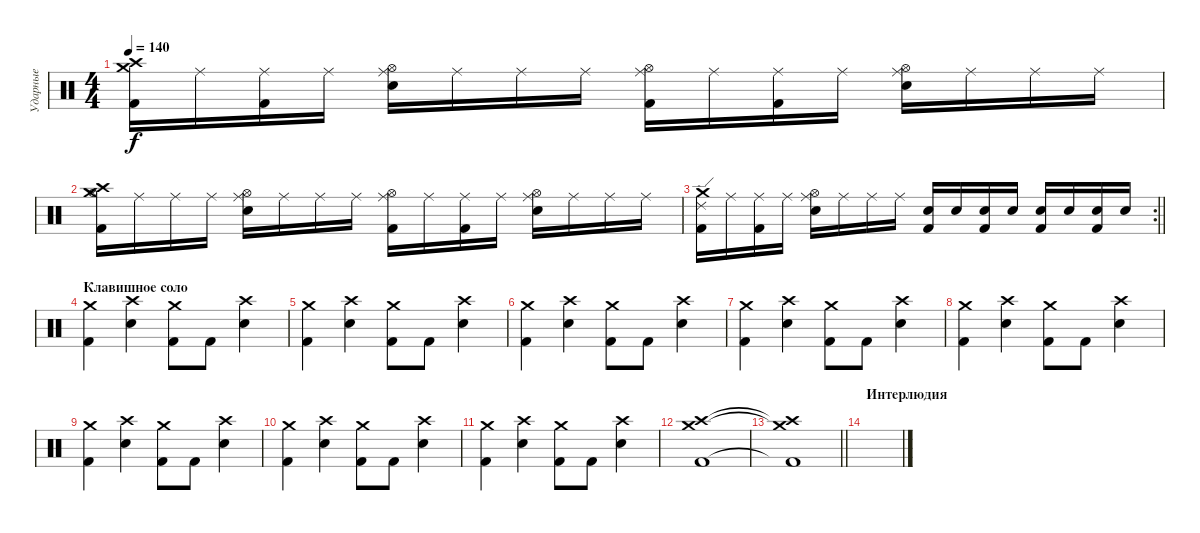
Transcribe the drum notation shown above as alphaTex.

\track ("Ударные" "Ударные") {instrument percussion}
\staff {score}
\articulation defaults
\ts (4 4)
\tempo 140
\clef neutral
\ks c
("Crash medium (hit)" "Crash high (hit)" "Kick (hit) 2").16{dy f} "Ride (middle)".16 ("Ride (middle)" "Kick (hit) 2").16 "Ride (middle)".16 ("Ride (middle)" "Hi-Hat (open)" "Snare (hit) 2").16 "Ride (middle)".16 "Ride (middle)".16 "Ride (middle)".16 ("Ride (middle)" "Hi-Hat (open)" "Kick (hit) 2").16 "Ride (middle)".16 ("Ride (middle)" "Kick (hit) 2").16 "Ride (middle)".16 ("Ride (middle)" "Hi-Hat (open)" "Snare (hit) 2").16 "Ride (middle)".16 "Ride (middle)".16 "Ride (middle)".16 |
("Crash medium (hit)" "Crash high (hit)" "Hi-Hat (open)" "Kick (hit) 2").16 "Ride (middle)".16 "Ride (middle)".16 "Ride (middle)".16 ("Ride (middle)" "Hi-Hat (open)" "Snare (hit) 2").16 "Ride (middle)".16 "Ride (middle)".16 "Ride (middle)".16 ("Ride (middle)" "Hi-Hat (open)" "Kick (hit) 2").16 "Ride (middle)".16 ("Ride (middle)" "Kick (hit) 2").16 "Ride (middle)".16 ("Ride (middle)" "Hi-Hat (open)" "Snare (hit) 2").16 "Ride (middle)".16 "Ride (middle)".16 "Ride (middle)".16 |
\rc 2
\barLineRight lightlight
("Crash medium (hit)" "Ride (edge) 2" "Kick (hit) 2").16 "Ride (middle)".16 ("Ride (middle)" "Kick (hit) 2").16 "Ride (middle)".16 ("Ride (middle)" "Hi-Hat (open)" "Snare (hit) 2").16 "Ride (middle)".16 "Ride (middle)".16 "Ride (middle)".16 ("Snare (hit) 2" "Kick (hit) 2").16 "Snare (hit) 2".16 ("Snare (hit) 2" "Kick (hit) 2").16 "Snare (hit) 2".16 ("Snare (hit) 2" "Kick (hit) 2").16 "Snare (hit) 2".16 ("Snare (hit) 2" "Kick (hit) 2").16 "Snare (hit) 2".16 |
\section ("" "Клавишное соло")
("Crash medium (hit)" "Kick (hit) 2").4 ("Crash high (hit)" "Snare (hit) 2").4 ("Crash medium (hit)" "Kick (hit) 2").8 "Kick (hit) 2".8 ("Crash high (hit)" "Snare (hit) 2").4 |
("Crash medium (hit)" "Kick (hit) 2").4 ("Crash high (hit)" "Snare (hit) 2").4 ("Crash medium (hit)" "Kick (hit) 2").8 "Kick (hit) 2".8 ("Crash high (hit)" "Snare (hit) 2").4 |
("Crash medium (hit)" "Kick (hit) 2").4 ("Crash high (hit)" "Snare (hit) 2").4 ("Crash medium (hit)" "Kick (hit) 2").8 "Kick (hit) 2".8 ("Crash high (hit)" "Snare (hit) 2").4 |
("Crash medium (hit)" "Kick (hit) 2").4 ("Crash high (hit)" "Snare (hit) 2").4 ("Crash medium (hit)" "Kick (hit) 2").8 "Kick (hit) 2".8 ("Crash high (hit)" "Snare (hit) 2").4 |
("Crash medium (hit)" "Kick (hit) 2").4 ("Crash high (hit)" "Snare (hit) 2").4 ("Crash medium (hit)" "Kick (hit) 2").8 "Kick (hit) 2".8 ("Crash high (hit)" "Snare (hit) 2").4 |
("Crash medium (hit)" "Kick (hit) 2").4 ("Crash high (hit)" "Snare (hit) 2").4 ("Crash medium (hit)" "Kick (hit) 2").8 "Kick (hit) 2".8 ("Crash high (hit)" "Snare (hit) 2").4 |
("Crash medium (hit)" "Kick (hit) 2").4 ("Crash high (hit)" "Snare (hit) 2").4 ("Crash medium (hit)" "Kick (hit) 2").8 "Kick (hit) 2".8 ("Crash high (hit)" "Snare (hit) 2").4 |
("Crash medium (hit)" "Kick (hit) 2").4 ("Crash high (hit)" "Snare (hit) 2").4 ("Crash medium (hit)" "Kick (hit) 2").8 "Kick (hit) 2".8 ("Crash high (hit)" "Snare (hit) 2").4 |
("Crash medium (hit)" "Crash high (hit)" "Kick (hit) 2").1 |
\barLineRight lightlight
("Crash medium (hit)"{t} "Crash high (hit)"{t} "Kick (hit) 2"{t}).1 |
\section ("" "Интерлюдия")
